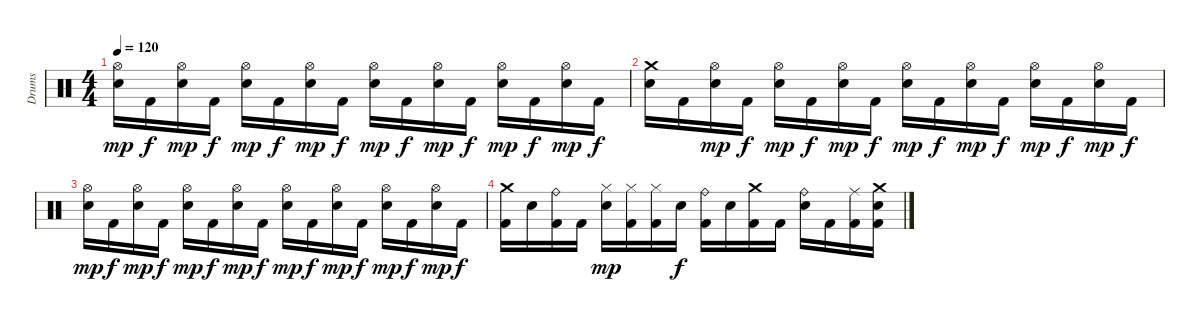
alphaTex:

\track ("Drums" "Drums") {instrument percussion}
\staff {score}
\articulation defaults
\ts (4 4)
\tempo 120
\clef neutral
\ks c
("Hi-Hat (open)" "Snare (hit) 2").16{dy mp} "Kick (hit) 2".16{dy f} ("Hi-Hat (open)" "Snare (hit) 2").16{dy mp} "Kick (hit) 2".16{dy f} ("Hi-Hat (open)" "Snare (hit) 2").16{dy mp} "Kick (hit) 2".16{dy f} ("Hi-Hat (open)" "Snare (hit) 2").16{dy mp} "Kick (hit) 2".16{dy f} ("Hi-Hat (open)" "Snare (hit) 2").16{dy mp} "Kick (hit) 2".16{dy f} ("Hi-Hat (open)" "Snare (hit) 2").16{dy mp} "Kick (hit) 2".16{dy f} ("Hi-Hat (open)" "Snare (hit) 2").16{dy mp} "Kick (hit) 2".16{dy f} ("Hi-Hat (open)" "Snare (hit) 2").16{dy mp} "Kick (hit) 2".16{dy f} |
("Crash medium (hit)" "Snare (hit) 2").16 "Kick (hit) 2".16 ("Hi-Hat (open)" "Snare (hit) 2").16{dy mp} "Kick (hit) 2".16{dy f} ("Hi-Hat (open)" "Snare (hit) 2").16{dy mp} "Kick (hit) 2".16{dy f} ("Hi-Hat (open)" "Snare (hit) 2").16{dy mp} "Kick (hit) 2".16{dy f} ("Hi-Hat (open)" "Snare (hit) 2").16{dy mp} "Kick (hit) 2".16{dy f} ("Hi-Hat (open)" "Snare (hit) 2").16{dy mp} "Kick (hit) 2".16{dy f} ("Hi-Hat (open)" "Snare (hit) 2").16{dy mp} "Kick (hit) 2".16{dy f} ("Hi-Hat (open)" "Snare (hit) 2").16{dy mp} "Kick (hit) 2".16{dy f} |
("Hi-Hat (open)" "Snare (hit) 2").16{dy mp} "Kick (hit) 2".16{dy f} ("Hi-Hat (open)" "Snare (hit) 2").16{dy mp} "Kick (hit) 2".16{dy f} ("Hi-Hat (open)" "Snare (hit) 2").16{dy mp} "Kick (hit) 2".16{dy f} ("Hi-Hat (open)" "Snare (hit) 2").16{dy mp} "Kick (hit) 2".16{dy f} ("Hi-Hat (open)" "Snare (hit) 2").16{dy mp} "Kick (hit) 2".16{dy f} ("Hi-Hat (open)" "Snare (hit) 2").16{dy mp} "Kick (hit) 2".16{dy f} ("Hi-Hat (open)" "Snare (hit) 2").16{dy mp} "Kick (hit) 2".16{dy f} ("Hi-Hat (open)" "Snare (hit) 2").16{dy mp} "Kick (hit) 2".16{dy f} |
("Crash medium (hit)" "Kick (hit) 2").16 "Snare (hit) 2".16 ("Ride (bell)" "Kick (hit) 2").16 "Kick (hit) 2".16 ("Hi-Hat (closed)" "Snare (hit) 2").16{dy mp} ("Hi-Hat (closed)" "Kick (hit) 2").16 ("Hi-Hat (closed)" "Kick (hit) 2").16 "Snare (hit) 2".16{dy f} ("Ride (bell)" "Kick (hit) 2").16 "Snare (hit) 2".16 ("Crash medium (hit)" "Kick (hit) 2").16 "Kick (hit) 2".16 ("Ride (bell)" "Snare (hit) 2").16 "Kick (hit) 2".16 ("Ride (middle)" "Kick (hit) 2").16 ("Crash medium (hit)" "Snare (hit) 2" "Kick (hit) 2").16
